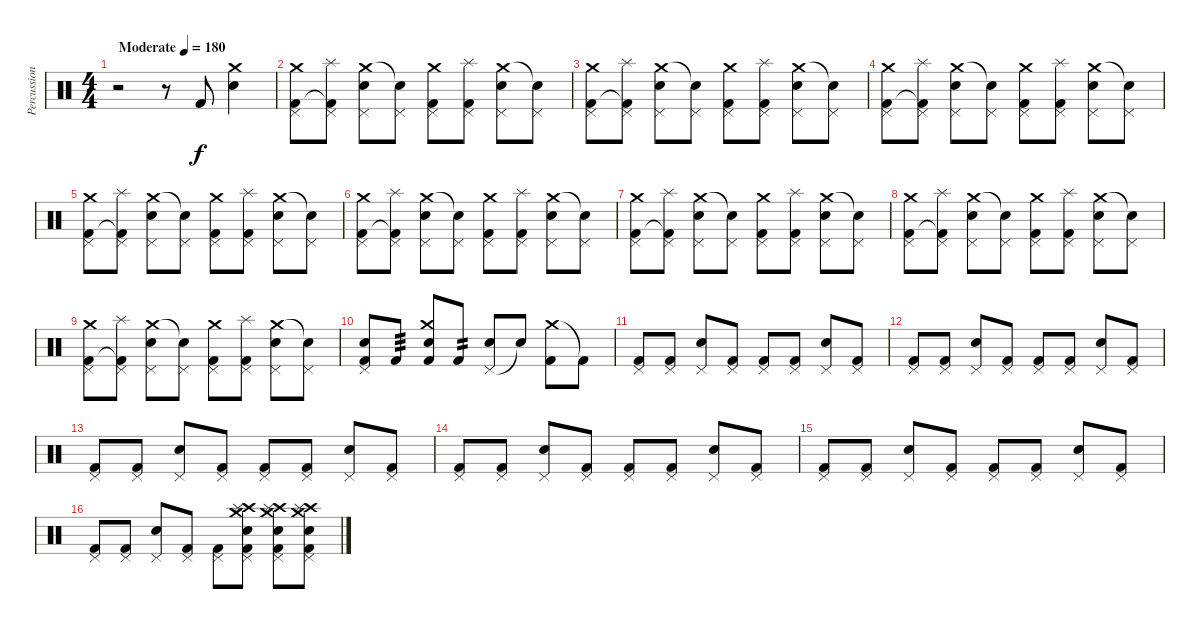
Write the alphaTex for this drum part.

\track ("Percussion" "Percussion") {instrument percussion}
\staff
\articulation defaults
\ts (4 4)
\tempo (180 "Moderate")
\clef neutral
\ks c
r.2{dy f} r.8 "Kick (hit) 2".8 ("Crash medium (hit)" "Snare (hit) 2").4 |
("Pedal Hi-Hat (hit)" "Crash medium (hit)" "Kick (hit) 2").8 ("Pedal Hi-Hat (hit)" "Splash (hit)" "Kick (hit) 2"{t}).8 ("Pedal Hi-Hat (hit)" "Crash medium (hit)" "Snare (hit) 2").8 ("Pedal Hi-Hat (hit)" "Snare (hit) 2"{t}).8 ("Pedal Hi-Hat (hit)" "Crash medium (hit)" "Kick (hit) 2").8 ("Pedal Hi-Hat (hit)" "Splash (hit)" "Kick (hit) 2").8 ("Pedal Hi-Hat (hit)" "Crash medium (hit)" "Snare (hit) 2").8 ("Pedal Hi-Hat (hit)" "Snare (hit) 2"{t}).8 |
("Pedal Hi-Hat (hit)" "Crash medium (hit)" "Kick (hit) 2").8 ("Pedal Hi-Hat (hit)" "Splash (hit)" "Kick (hit) 2"{t}).8 ("Pedal Hi-Hat (hit)" "Crash medium (hit)" "Snare (hit) 2").8 ("Pedal Hi-Hat (hit)" "Snare (hit) 2"{t}).8 ("Pedal Hi-Hat (hit)" "Crash medium (hit)" "Kick (hit) 2").8 ("Pedal Hi-Hat (hit)" "Splash (hit)" "Kick (hit) 2").8 ("Pedal Hi-Hat (hit)" "Crash medium (hit)" "Snare (hit) 2").8 ("Pedal Hi-Hat (hit)" "Snare (hit) 2"{t}).8 |
("Pedal Hi-Hat (hit)" "Crash medium (hit)" "Kick (hit) 2").8 ("Pedal Hi-Hat (hit)" "Splash (hit)" "Kick (hit) 2"{t}).8 ("Pedal Hi-Hat (hit)" "Crash medium (hit)" "Snare (hit) 2").8 ("Pedal Hi-Hat (hit)" "Snare (hit) 2"{t}).8 ("Pedal Hi-Hat (hit)" "Crash medium (hit)" "Kick (hit) 2").8 ("Pedal Hi-Hat (hit)" "Splash (hit)" "Kick (hit) 2").8 ("Pedal Hi-Hat (hit)" "Crash medium (hit)" "Snare (hit) 2").8 ("Pedal Hi-Hat (hit)" "Snare (hit) 2"{t}).8 |
("Pedal Hi-Hat (hit)" "Crash medium (hit)" "Kick (hit) 2").8 ("Pedal Hi-Hat (hit)" "Splash (hit)" "Kick (hit) 2"{t}).8 ("Pedal Hi-Hat (hit)" "Crash medium (hit)" "Snare (hit) 2").8 ("Pedal Hi-Hat (hit)" "Snare (hit) 2"{t}).8 ("Pedal Hi-Hat (hit)" "Crash medium (hit)" "Kick (hit) 2").8 ("Pedal Hi-Hat (hit)" "Splash (hit)" "Kick (hit) 2").8 ("Pedal Hi-Hat (hit)" "Crash medium (hit)" "Snare (hit) 2").8 ("Pedal Hi-Hat (hit)" "Snare (hit) 2"{t}).8 |
("Pedal Hi-Hat (hit)" "Crash medium (hit)" "Kick (hit) 2").8 ("Pedal Hi-Hat (hit)" "Splash (hit)" "Kick (hit) 2"{t}).8 ("Pedal Hi-Hat (hit)" "Crash medium (hit)" "Snare (hit) 2").8 ("Pedal Hi-Hat (hit)" "Snare (hit) 2"{t}).8 ("Pedal Hi-Hat (hit)" "Crash medium (hit)" "Kick (hit) 2").8 ("Pedal Hi-Hat (hit)" "Splash (hit)" "Kick (hit) 2").8 ("Pedal Hi-Hat (hit)" "Crash medium (hit)" "Snare (hit) 2").8 ("Pedal Hi-Hat (hit)" "Snare (hit) 2"{t}).8 |
("Pedal Hi-Hat (hit)" "Crash medium (hit)" "Kick (hit) 2").8 ("Pedal Hi-Hat (hit)" "Splash (hit)" "Kick (hit) 2"{t}).8 ("Pedal Hi-Hat (hit)" "Crash medium (hit)" "Snare (hit) 2").8 ("Pedal Hi-Hat (hit)" "Snare (hit) 2"{t}).8 ("Pedal Hi-Hat (hit)" "Crash medium (hit)" "Kick (hit) 2").8 ("Pedal Hi-Hat (hit)" "Splash (hit)" "Kick (hit) 2").8 ("Pedal Hi-Hat (hit)" "Crash medium (hit)" "Snare (hit) 2").8 ("Pedal Hi-Hat (hit)" "Snare (hit) 2"{t}).8 |
("Pedal Hi-Hat (hit)" "Crash medium (hit)" "Kick (hit) 2").8 ("Pedal Hi-Hat (hit)" "Splash (hit)" "Kick (hit) 2"{t}).8 ("Pedal Hi-Hat (hit)" "Crash medium (hit)" "Snare (hit) 2").8 ("Pedal Hi-Hat (hit)" "Snare (hit) 2"{t}).8 ("Pedal Hi-Hat (hit)" "Crash medium (hit)" "Kick (hit) 2").8 ("Pedal Hi-Hat (hit)" "Splash (hit)" "Kick (hit) 2").8 ("Pedal Hi-Hat (hit)" "Crash medium (hit)" "Snare (hit) 2").8 ("Pedal Hi-Hat (hit)" "Snare (hit) 2"{t}).8 |
("Pedal Hi-Hat (hit)" "Crash medium (hit)" "Kick (hit) 2").8 ("Pedal Hi-Hat (hit)" "Splash (hit)" "Kick (hit) 2"{t}).8 ("Pedal Hi-Hat (hit)" "Crash medium (hit)" "Snare (hit) 2").8 ("Pedal Hi-Hat (hit)" "Snare (hit) 2"{t}).8 ("Pedal Hi-Hat (hit)" "Crash medium (hit)" "Kick (hit) 2").8 ("Pedal Hi-Hat (hit)" "Splash (hit)" "Kick (hit) 2").8 ("Pedal Hi-Hat (hit)" "Crash medium (hit)" "Snare (hit) 2").8 ("Pedal Hi-Hat (hit)" "Snare (hit) 2"{t}).8 |
("Pedal Hi-Hat (hit)" "Kick (hit) 2" "Snare (hit) 2").8 "Kick (hit) 2".8{tp 3} ("Crash medium (hit)" "Snare (hit) 2" "Kick (hit) 2").8 "Kick (hit) 2".8{tp 2} ("Pedal Hi-Hat (hit)" "Snare (hit) 2").8 "Snare (hit) 2"{t}.8 ("Crash medium (hit)" "Kick (hit) 2").8 "Kick (hit) 2"{t}.8 |
("Pedal Hi-Hat (hit)" "Kick (hit) 2").8 ("Pedal Hi-Hat (hit)" "Kick (hit) 2").8 ("Pedal Hi-Hat (hit)" "Snare (hit) 2").8 ("Pedal Hi-Hat (hit)" "Kick (hit) 2").8 ("Pedal Hi-Hat (hit)" "Kick (hit) 2").8 ("Pedal Hi-Hat (hit)" "Kick (hit) 2").8 ("Pedal Hi-Hat (hit)" "Snare (hit) 2").8 ("Pedal Hi-Hat (hit)" "Kick (hit) 2").8 |
("Pedal Hi-Hat (hit)" "Kick (hit) 2").8 ("Pedal Hi-Hat (hit)" "Kick (hit) 2").8 ("Pedal Hi-Hat (hit)" "Snare (hit) 2").8 ("Pedal Hi-Hat (hit)" "Kick (hit) 2").8 ("Pedal Hi-Hat (hit)" "Kick (hit) 2").8 ("Pedal Hi-Hat (hit)" "Kick (hit) 2").8 ("Pedal Hi-Hat (hit)" "Snare (hit) 2").8 ("Pedal Hi-Hat (hit)" "Kick (hit) 2").8 |
("Pedal Hi-Hat (hit)" "Kick (hit) 2").8 ("Pedal Hi-Hat (hit)" "Kick (hit) 2").8 ("Pedal Hi-Hat (hit)" "Snare (hit) 2").8 ("Pedal Hi-Hat (hit)" "Kick (hit) 2").8 ("Pedal Hi-Hat (hit)" "Kick (hit) 2").8 ("Pedal Hi-Hat (hit)" "Kick (hit) 2").8 ("Pedal Hi-Hat (hit)" "Snare (hit) 2").8 ("Pedal Hi-Hat (hit)" "Kick (hit) 2").8 |
("Pedal Hi-Hat (hit)" "Kick (hit) 2").8 ("Pedal Hi-Hat (hit)" "Kick (hit) 2").8 ("Pedal Hi-Hat (hit)" "Snare (hit) 2").8 ("Pedal Hi-Hat (hit)" "Kick (hit) 2").8 ("Pedal Hi-Hat (hit)" "Kick (hit) 2").8 ("Pedal Hi-Hat (hit)" "Kick (hit) 2").8 ("Pedal Hi-Hat (hit)" "Snare (hit) 2").8 ("Pedal Hi-Hat (hit)" "Kick (hit) 2").8 |
("Pedal Hi-Hat (hit)" "Kick (hit) 2").8 ("Pedal Hi-Hat (hit)" "Kick (hit) 2").8 ("Pedal Hi-Hat (hit)" "Snare (hit) 2").8 ("Pedal Hi-Hat (hit)" "Kick (hit) 2").8 ("Pedal Hi-Hat (hit)" "Kick (hit) 2").8 ("Pedal Hi-Hat (hit)" "Kick (hit) 2").8 ("Pedal Hi-Hat (hit)" "Snare (hit) 2").8 ("Pedal Hi-Hat (hit)" "Kick (hit) 2").8 |
("Pedal Hi-Hat (hit)" "Kick (hit) 2").8 ("Pedal Hi-Hat (hit)" "Kick (hit) 2").8 ("Pedal Hi-Hat (hit)" "Snare (hit) 2").8 ("Pedal Hi-Hat (hit)" "Kick (hit) 2").8 ("Pedal Hi-Hat (hit)" "Kick (hit) 2").8 ("Pedal Hi-Hat (hit)" "Crash high (hit)" "Crash medium (hit)" "Splash (hit)" "Snare (hit) 2" "Kick (hit) 2").8 ("Pedal Hi-Hat (hit)" "Crash high (hit)" "Crash medium (hit)" "Splash (hit)" "Snare (hit) 2" "Kick (hit) 2").8 ("Pedal Hi-Hat (hit)" "Crash high (hit)" "Crash medium (hit)" "Splash (hit)" "Snare (hit) 2" "Kick (hit) 2").8
